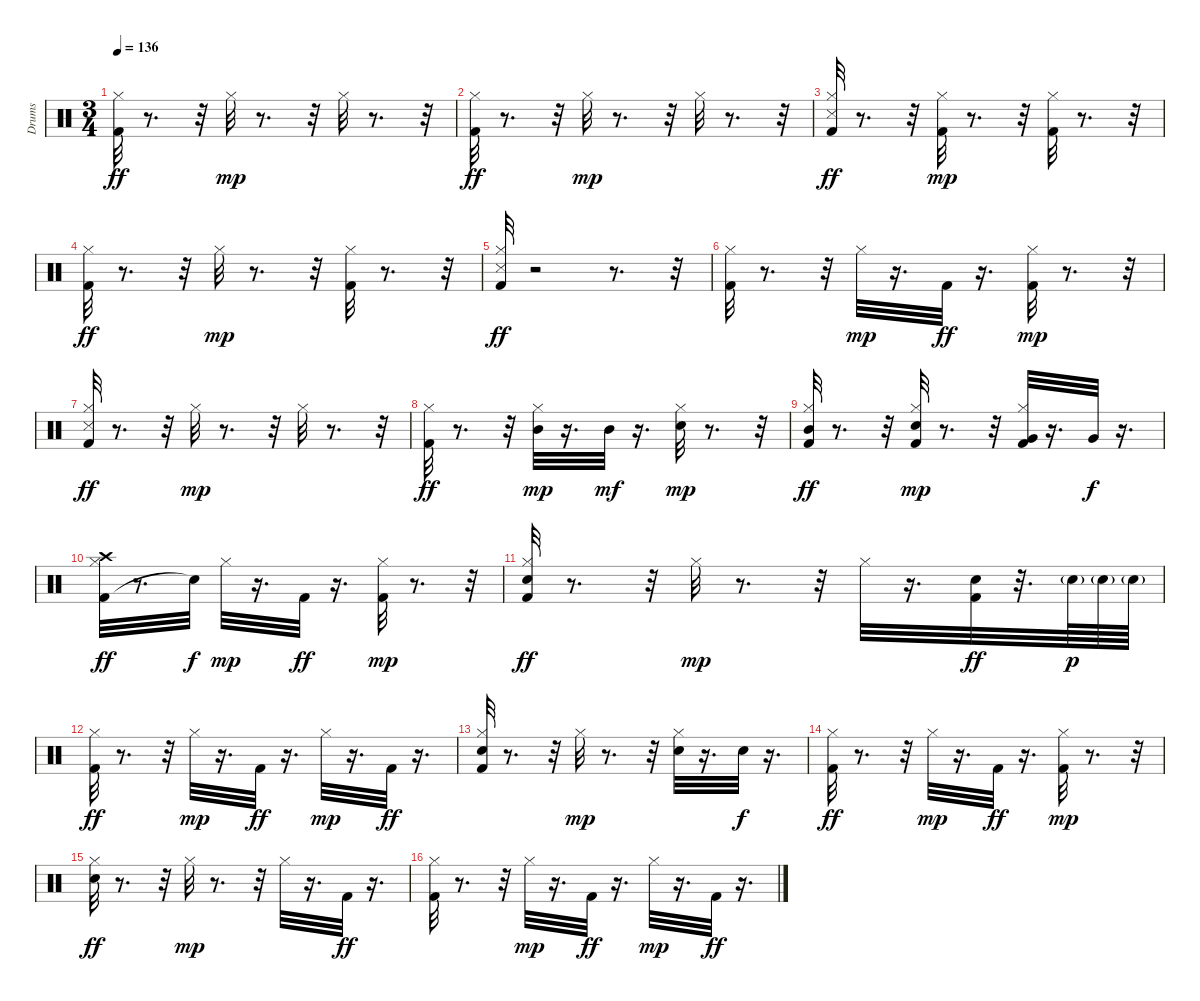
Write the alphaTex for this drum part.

\track ("Drums  " "Drums  ") {instrument percussion}
\staff {score}
\articulation defaults
\ts (3 4)
\tempo 136
\clef neutral
\ks c
("Kick (hit) 2" "Hi-Hat (closed)").32{dy ff} r.8{d} r.32 "Hi-Hat (closed)".32{dy mp} r.8{d} r.32 "Hi-Hat (closed)".32 r.8{d} r.32 |
("Kick (hit) 2" "Hi-Hat (closed)").32{dy ff} r.8{d} r.32 "Hi-Hat (closed)".32{dy mp} r.8{d} r.32 "Hi-Hat (closed)".32 r.8{d} r.32 |
("Kick (hit) 2" "Hi-Hat (closed)" "Snare (side stick) 3").32{dy ff} r.8{d} r.32 ("Kick (hit) 2" "Hi-Hat (closed)").32{dy mp} r.8{d} r.32 ("Kick (hit) 2" "Hi-Hat (closed)").32 r.8{d} r.32 |
("Kick (hit) 2" "Hi-Hat (closed)").32{dy ff} r.8{d} r.32 "Hi-Hat (closed)".32{dy mp} r.8{d} r.32 ("Kick (hit) 2" "Hi-Hat (closed)").32 r.8{d} r.32 |
("Kick (hit) 2" "Hi-Hat (closed)" "Snare (side stick) 3").32{dy ff} r.2 r.8{d} r.32 |
("Kick (hit) 2" "Hi-Hat (closed)").32 r.8{d} r.32 "Hi-Hat (closed)".32{dy mp} r.16{d} "Kick (hit) 2".32{dy ff} r.16{d} ("Kick (hit) 2" "Hi-Hat (closed)").32{dy mp} r.8{d} r.32 |
("Kick (hit) 2" "Hi-Hat (closed)" "Snare (side stick) 3").32{dy ff} r.8{d} r.32 "Hi-Hat (closed)".32{dy mp} r.8{d} r.32 "Hi-Hat (closed)".32 r.8{d} r.32 |
("Kick (hit) 2" "Hi-Hat (closed)").32{dy ff} r.8{d} r.32 ("Mid Tom (hit)" "Hi-Hat (closed)").32{dy mp} r.16{d} "Mid Tom (hit)".32{dy mf} r.16{d} ("Snare (hit) 2" "Hi-Hat (closed)").32{dy mp} r.8{d} r.32 |
("Kick (hit) 2" "Mid Tom (hit)" "Hi-Hat (closed)").32{dy ff} r.8{d} r.32 ("Snare (hit) 2" "Kick (hit) 2" "Hi-Hat (closed)").32{dy mp} r.8{d} r.32 ("Kick (hit) 2" "Very Low Tom (hit)" "Hi-Hat (closed)").32 r.16{d} "Very Low Tom (hit)".32{dy f} r.16{d} |
("Kick (hit) 2" "Hi-Hat (closed)" "Crash high (hit)").32{dy ff} r.8{d} "Snare (hit)"{t}.32{dy f} "Hi-Hat (closed)".32{dy mp} r.16{d} "Kick (hit) 2".32{dy ff} r.16{d} ("Kick (hit) 2" "Hi-Hat (closed)").32{dy mp} r.8{d} r.32 |
("Snare (hit) 2" "Kick (hit) 2" "Hi-Hat (closed)").32{dy ff} r.8{d} r.32 "Hi-Hat (closed)".32{dy mp} r.8{d} r.32 "Hi-Hat (closed)".32 r.16{d} ("Kick (hit) 2" "Snare (hit) 2").32{dy ff} r.32{d} "Snare (hit) 2"{g}.64{dy p} "Snare (hit) 2"{g}.64 "Snare (hit) 2"{g}.64 |
("Kick (hit) 2" "Hi-Hat (closed)").32{dy ff} r.8{d} r.32 "Hi-Hat (closed)".32{dy mp} r.16{d} "Kick (hit) 2".32{dy ff} r.16{d} "Hi-Hat (closed)".32{dy mp} r.16{d} "Kick (hit) 2".32{dy ff} r.16{d} |
("Kick (hit) 2" "Snare (hit) 2" "Hi-Hat (closed)").32 r.8{d} r.32 "Hi-Hat (closed)".32{dy mp} r.8{d} r.32 ("Snare (hit) 2" "Hi-Hat (closed)").32 r.16{d} "Snare (hit) 2".32{dy f} r.16{d} |
("Kick (hit) 2" "Hi-Hat (closed)").32{dy ff} r.8{d} r.32 "Hi-Hat (closed)".32{dy mp} r.16{d} "Kick (hit) 2".32{dy ff} r.16{d} ("Kick (hit) 2" "Hi-Hat (closed)").32{dy mp} r.8{d} r.32 |
("Snare (hit) 2" "Hi-Hat (closed)").32{dy ff} r.8{d} r.32 "Hi-Hat (closed)".32{dy mp} r.8{d} r.32 "Hi-Hat (closed)".32 r.16{d} "Kick (hit) 2".32{dy ff} r.16{d} |
("Kick (hit) 2" "Hi-Hat (closed)").32 r.8{d} r.32 "Hi-Hat (closed)".32{dy mp} r.16{d} "Kick (hit) 2".32{dy ff} r.16{d} "Hi-Hat (closed)".32{dy mp} r.16{d} "Kick (hit) 2".32{dy ff} r.16{d}
